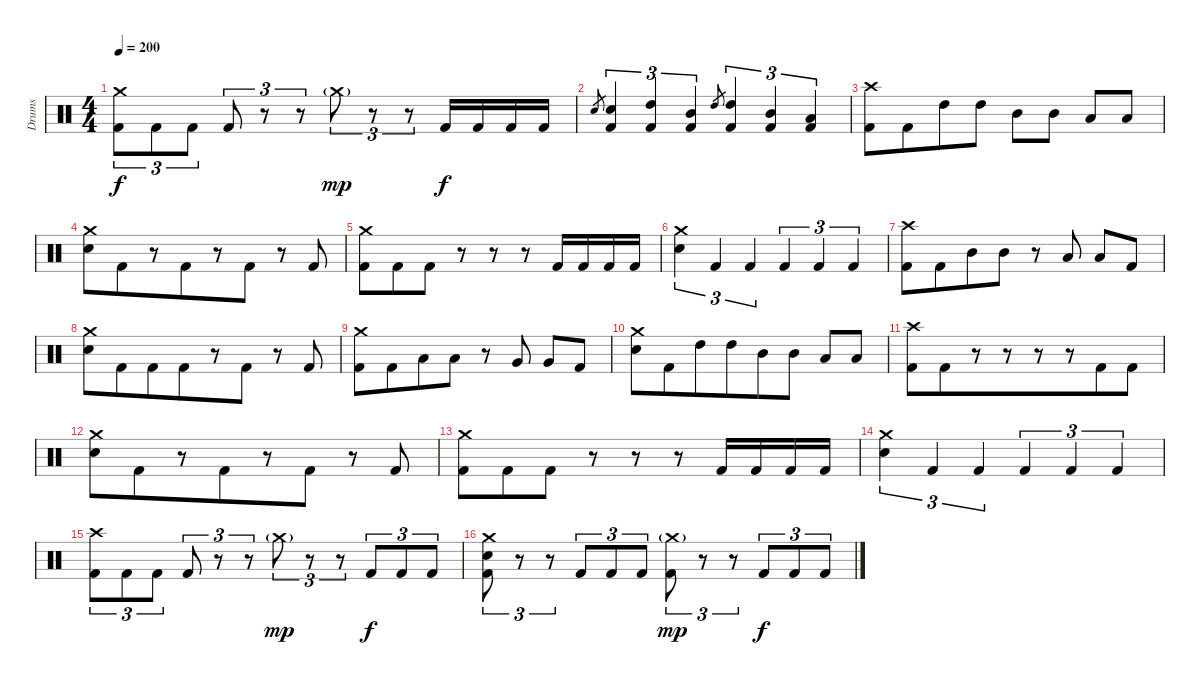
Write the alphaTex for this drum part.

\track ("Drums" "Drums") {instrument percussion}
\staff {score}
\articulation defaults
\ts (4 4)
\tempo 200
\clef neutral
\ks c
("Crash medium (hit)" "Kick (hit) 2").8{tu (3 2) dy f} "Kick (hit) 2".8{tu (3 2) beam merge} "Kick (hit) 2".8{tu (3 2)} "Kick (hit) 2".8{tu (3 2)} r.8{tu (3 2) beam merge} r.8{tu (3 2)} "Crash medium (hit)"{g}.8{tu (3 2) dy mp} r.8{tu (3 2) beam merge} r.8{tu (3 2)} "Kick (hit) 2".16{dy f} "Kick (hit) 2".16{beam merge} "Kick (hit) 2".16 "Kick (hit) 2".16 |
"Electric Snare (hit)".8{gr} ("Electric Snare (hit)" "Kick (hit) 2").4{tu (3 2)} ("High Tom (hit)" "Kick (hit) 2").4{tu (3 2) beam merge} ("Mid Tom (hit)" "Kick (hit) 2").4{tu (3 2)} "High Tom (hit)".8{gr} ("High Tom (hit)" "Kick (hit) 2").4{tu (3 2)} ("Mid Tom (hit)" "Kick (hit) 2").4{tu (3 2) beam merge} ("Low Tom (hit)" "Kick (hit) 2").4{tu (3 2)} |
("Crash high (hit)" "Kick (hit) 2").8 "Kick (hit) 2".8{beam merge} "High Tom (hit)".8 "High Tom (hit)".8 "Mid Tom (hit)".8{beam merge} "Mid Tom (hit)".8 "Low Tom (hit)".8{beam merge} "Low Tom (hit)".8 |
("Crash medium (hit)" "Electric Snare (hit)").8 "Kick (hit) 2".8{beam merge} r.8 "Kick (hit) 2".8{beam merge} r.8 "Kick (hit) 2".8 r.8{beam merge} "Kick (hit) 2".8 |
("Crash medium (hit)" "Kick (hit) 2").8 "Kick (hit) 2".8{beam merge} "Kick (hit) 2".8 r.8 r.8{beam merge} r.8 "Kick (hit) 2".16{beam merge} "Kick (hit) 2".16{beam merge} "Kick (hit) 2".16 "Kick (hit) 2".16 |
("Crash medium (hit)" "Electric Snare (hit)").4{tu (3 2)} "Kick (hit) 2".4{tu (3 2) beam merge} "Kick (hit) 2".4{tu (3 2)} "Kick (hit) 2".4{tu (3 2) beam merge} "Kick (hit) 2".4{tu (3 2)} "Kick (hit) 2".4{tu (3 2)} |
("Crash high (hit)" "Kick (hit) 2").8 "Kick (hit) 2".8{beam merge} "Mid Tom (hit)".8 "Mid Tom (hit)".8 r.8{beam merge} "Low Tom (hit)".8 "Low Tom (hit)".8{beam merge} "Kick (hit) 2".8 |
("Crash medium (hit)" "Electric Snare (hit)").8 "Kick (hit) 2".8{beam merge} "Kick (hit) 2".8 "Kick (hit) 2".8{beam merge} r.8 "Kick (hit) 2".8 r.8{beam merge} "Kick (hit) 2".8 |
("Crash medium (hit)" "Kick (hit) 2").8 "Kick (hit) 2".8{beam merge} "Low Tom (hit)".8 "Low Tom (hit)".8 r.8{beam merge} "Very Low Tom (hit)".8 "Very Low Tom (hit)".8{beam merge} "Kick (hit) 2".8 |
("Crash medium (hit)" "Electric Snare (hit)").8 "Kick (hit) 2".8{beam merge} "High Tom (hit)".8 "High Tom (hit)".8{beam merge} "Mid Tom (hit)".8 "Mid Tom (hit)".8 "Low Tom (hit)".8{beam merge} "Low Tom (hit)".8 |
("Crash high (hit)" "Kick (hit) 2").8 "Kick (hit) 2".8{beam merge} r.8 r.8 r.8{beam merge} r.8 "Kick (hit) 2".8{beam merge} "Kick (hit) 2".8 |
("Crash medium (hit)" "Electric Snare (hit)").8 "Kick (hit) 2".8{beam merge} r.8 "Kick (hit) 2".8{beam merge} r.8 "Kick (hit) 2".8 r.8{beam merge} "Kick (hit) 2".8 |
("Crash medium (hit)" "Kick (hit) 2").8 "Kick (hit) 2".8{beam merge} "Kick (hit) 2".8 r.8 r.8{beam merge} r.8 "Kick (hit) 2".16{beam merge} "Kick (hit) 2".16{beam merge} "Kick (hit) 2".16 "Kick (hit) 2".16 |
("Crash medium (hit)" "Electric Snare (hit)").4{tu (3 2)} "Kick (hit) 2".4{tu (3 2) beam merge} "Kick (hit) 2".4{tu (3 2)} "Kick (hit) 2".4{tu (3 2) beam merge} "Kick (hit) 2".4{tu (3 2)} "Kick (hit) 2".4{tu (3 2)} |
("Crash high (hit)" "Kick (hit) 2").8{tu (3 2)} "Kick (hit) 2".8{tu (3 2) beam merge} "Kick (hit) 2".8{tu (3 2)} "Kick (hit) 2".8{tu (3 2)} r.8{tu (3 2) beam merge} r.8{tu (3 2)} "Crash medium (hit)"{g}.8{tu (3 2) dy mp} r.8{tu (3 2) beam merge} r.8{tu (3 2)} "Kick (hit) 2".8{tu (3 2) dy f} "Kick (hit) 2".8{tu (3 2) beam merge} "Kick (hit) 2".8{tu (3 2)} |
("Crash medium (hit)" "Electric Snare (hit)" "Kick (hit) 2").8{tu (3 2)} r.8{tu (3 2) beam merge} r.8{tu (3 2)} "Kick (hit) 2".8{tu (3 2)} "Kick (hit) 2".8{tu (3 2) beam merge} "Kick (hit) 2".8{tu (3 2)} ("Crash medium (hit)"{g} "Kick (hit) 2").8{tu (3 2) dy mp} r.8{tu (3 2) beam merge} r.8{tu (3 2)} "Kick (hit) 2".8{tu (3 2) dy f} "Kick (hit) 2".8{tu (3 2) beam merge} "Kick (hit) 2".8{tu (3 2)}
